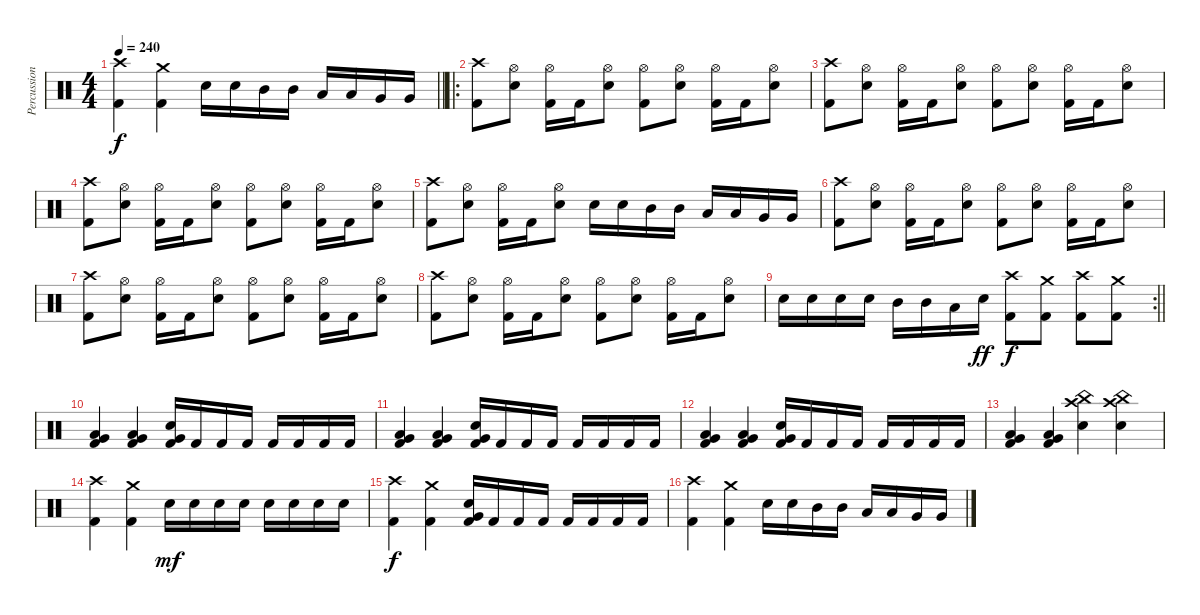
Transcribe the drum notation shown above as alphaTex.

\track ("Percussion" "Percussion") {instrument percussion}
\staff {score}
\articulation defaults
\ts (4 4)
\tempo 240
\clef neutral
\barLineRight lightlight
\ks c
("Crash high (hit)" "Kick (hit) 2").4{dy f} ("Crash medium (hit)" "Kick (hit) 2").4 "Snare (hit) 2".16 "Snare (hit) 2".16 "Mid Tom (hit)".16 "Mid Tom (hit)".16 "Low Tom (hit)".16 "Low Tom (hit)".16 "Very Low Tom (hit)".16 "Very Low Tom (hit)".16 |
\ro
("Crash high (hit)" "Kick (hit) 2").8 ("Hi-Hat (open)" "Snare (hit) 2").8 ("Hi-Hat (open)" "Kick (hit) 2").16 "Kick (hit) 2".16 ("Hi-Hat (open)" "Snare (hit) 2").8 ("Hi-Hat (open)" "Kick (hit) 2").8 ("Hi-Hat (open)" "Snare (hit) 2").8 ("Hi-Hat (open)" "Kick (hit) 2").16 "Kick (hit) 2".16 ("Hi-Hat (open)" "Snare (hit) 2").8 |
("Crash high (hit)" "Kick (hit) 2").8 ("Hi-Hat (open)" "Snare (hit) 2").8 ("Hi-Hat (open)" "Kick (hit) 2").16 "Kick (hit) 2".16 ("Hi-Hat (open)" "Snare (hit) 2").8 ("Hi-Hat (open)" "Kick (hit) 2").8 ("Hi-Hat (open)" "Snare (hit) 2").8 ("Hi-Hat (open)" "Kick (hit) 2").16 "Kick (hit) 2".16 ("Hi-Hat (open)" "Snare (hit) 2").8 |
("Crash high (hit)" "Kick (hit) 2").8 ("Hi-Hat (open)" "Snare (hit) 2").8 ("Hi-Hat (open)" "Kick (hit) 2").16 "Kick (hit) 2".16 ("Hi-Hat (open)" "Snare (hit) 2").8 ("Hi-Hat (open)" "Kick (hit) 2").8 ("Hi-Hat (open)" "Snare (hit) 2").8 ("Hi-Hat (open)" "Kick (hit) 2").16 "Kick (hit) 2".16 ("Hi-Hat (open)" "Snare (hit) 2").8 |
("Crash high (hit)" "Kick (hit) 2").8 ("Hi-Hat (open)" "Snare (hit) 2").8 ("Hi-Hat (open)" "Kick (hit) 2").16 "Kick (hit) 2".16 ("Hi-Hat (open)" "Snare (hit) 2").8 "Snare (hit) 2".16 "Snare (hit) 2".16 "Mid Tom (hit)".16 "Mid Tom (hit)".16 "Low Tom (hit)".16 "Low Tom (hit)".16 "Very Low Tom (hit)".16 "Very Low Tom (hit)".16 |
("Crash high (hit)" "Kick (hit) 2").8 ("Hi-Hat (open)" "Snare (hit) 2").8 ("Hi-Hat (open)" "Kick (hit) 2").16 "Kick (hit) 2".16 ("Hi-Hat (open)" "Snare (hit) 2").8 ("Hi-Hat (open)" "Kick (hit) 2").8 ("Hi-Hat (open)" "Snare (hit) 2").8 ("Hi-Hat (open)" "Kick (hit) 2").16 "Kick (hit) 2".16 ("Hi-Hat (open)" "Snare (hit) 2").8 |
("Crash high (hit)" "Kick (hit) 2").8 ("Hi-Hat (open)" "Snare (hit) 2").8 ("Hi-Hat (open)" "Kick (hit) 2").16 "Kick (hit) 2".16 ("Hi-Hat (open)" "Snare (hit) 2").8 ("Hi-Hat (open)" "Kick (hit) 2").8 ("Hi-Hat (open)" "Snare (hit) 2").8 ("Hi-Hat (open)" "Kick (hit) 2").16 "Kick (hit) 2".16 ("Hi-Hat (open)" "Snare (hit) 2").8 |
("Crash high (hit)" "Kick (hit) 2").8 ("Hi-Hat (open)" "Snare (hit) 2").8 ("Hi-Hat (open)" "Kick (hit) 2").16 "Kick (hit) 2".16 ("Hi-Hat (open)" "Snare (hit) 2").8 ("Hi-Hat (open)" "Kick (hit) 2").8 ("Hi-Hat (open)" "Snare (hit) 2").8 ("Hi-Hat (open)" "Kick (hit) 2").16 "Kick (hit) 2".16 ("Hi-Hat (open)" "Snare (hit) 2").8 |
\rc 2
\barLineRight lightlight "Snare (hit) 2".16 "Snare (hit) 2".16 "Snare (hit) 2".16 "Snare (hit) 2".16 "Mid Tom (hit)".16 "Mid Tom (hit)".16 "Low Tom (hit)".16 "Snare (hit) 2".16{dy ff}
("Crash high (hit)" "Kick (hit) 2").8{dy f} ("Crash medium (hit)" "Kick (hit) 2").8 ("Crash high (hit)" "Kick (hit) 2").8 ("Crash medium (hit)" "Kick (hit) 2").8 |
("Very Low Tom (hit)" "Low Floor Tom (hit)" "Kick (hit) 2").4 ("Very Low Tom (hit)" "Low Floor Tom (hit)" "Kick (hit) 2").4 ("Snare (hit) 2" "Very Low Tom (hit)" "Kick (hit) 2").16 "Kick (hit) 2".16 "Kick (hit) 2".16 "Kick (hit) 2".16 "Kick (hit) 2".16 "Kick (hit) 2".16 "Kick (hit) 2".16 "Kick (hit) 2".16 |
("Very Low Tom (hit)" "Low Floor Tom (hit)" "Kick (hit) 2").4 ("Very Low Tom (hit)" "Low Floor Tom (hit)" "Kick (hit) 2").4 ("Snare (hit) 2" "Very Low Tom (hit)" "Kick (hit) 2").16 "Kick (hit) 2".16 "Kick (hit) 2".16 "Kick (hit) 2".16 "Kick (hit) 2".16 "Kick (hit) 2".16 "Kick (hit) 2".16 "Kick (hit) 2".16 |
("Very Low Tom (hit)" "Low Floor Tom (hit)" "Kick (hit) 2").4 ("Very Low Tom (hit)" "Low Floor Tom (hit)" "Kick (hit) 2").4 ("Snare (hit) 2" "Very Low Tom (hit)" "Kick (hit) 2").16 "Kick (hit) 2".16 "Kick (hit) 2".16 "Kick (hit) 2".16 "Kick (hit) 2".16 "Kick (hit) 2".16 "Kick (hit) 2".16 "Kick (hit) 2".16 |
("Very Low Tom (hit)" "Low Floor Tom (hit)" "Kick (hit) 2").4 ("Very Low Tom (hit)" "Low Floor Tom (hit)" "Kick (hit) 2").4 ("China (hit)" "Crash high (hit)" "Snare (hit) 2").4 ("China (hit)" "Crash high (hit)" "Snare (hit) 2").4 |
("Crash high (hit)" "Kick (hit) 2").4 ("Crash medium (hit)" "Kick (hit) 2").4 "Snare (hit) 2".16{dy mf} "Snare (hit) 2".16 "Snare (hit) 2".16 "Snare (hit) 2".16 "Snare (hit) 2".16 "Snare (hit) 2".16 "Snare (hit) 2".16 "Snare (hit) 2".16 |
("Crash high (hit)" "Kick (hit) 2").4{dy f} ("Crash medium (hit)" "Kick (hit) 2").4 ("Snare (hit) 2" "Very Low Tom (hit)" "Kick (hit) 2").16 "Kick (hit) 2".16 "Kick (hit) 2".16 "Kick (hit) 2".16 "Kick (hit) 2".16 "Kick (hit) 2".16 "Kick (hit) 2".16 "Kick (hit) 2".16 |
("Crash high (hit)" "Kick (hit) 2").4 ("Crash medium (hit)" "Kick (hit) 2").4 "Snare (hit) 2".16 "Snare (hit) 2".16 "Mid Tom (hit)".16 "Mid Tom (hit)".16 "Low Tom (hit)".16 "Low Tom (hit)".16 "Very Low Tom (hit)".16 "Very Low Tom (hit)".16
